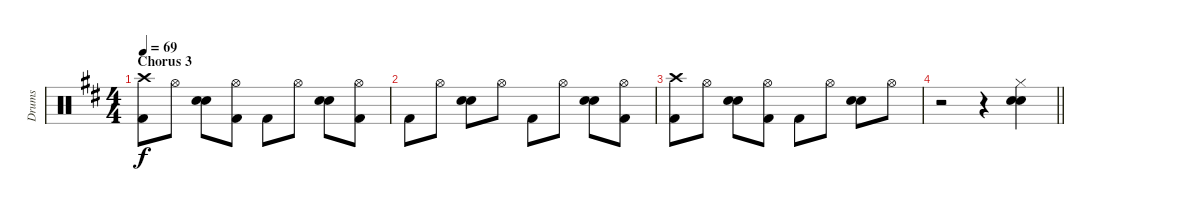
\track ("Drums" "Drums") {instrument percussion}
\staff {score}
\articulation defaults
\ts (4 4)
\section ("" "Chorus 3")
\tempo 69
\clef neutral
\ks d
("Crash high (hit)" "Kick (hit) 2").8{dy f} "Hi-Hat (open)".8 ("Hand Clap (hit)" "Snare (hit) 2").8 ("Hi-Hat (open)" "Kick (hit) 2").8 "Kick (hit) 2".8 "Hi-Hat (open)".8 ("Hand Clap (hit)" "Snare (hit) 2").8 ("Hi-Hat (open)" "Kick (hit) 2").8 |
"Kick (hit) 2".8 "Hi-Hat (open)".8 ("Hand Clap (hit)" "Snare (hit) 2").8 "Hi-Hat (open)".8 "Kick (hit) 2".8 "Hi-Hat (open)".8 ("Hand Clap (hit)" "Snare (hit) 2").8 ("Hi-Hat (open)" "Kick (hit) 2").8 |
("Crash high (hit)" "Kick (hit) 2").8 "Hi-Hat (open)".8 ("Hand Clap (hit)" "Snare (hit) 2").8 ("Hi-Hat (open)" "Kick (hit) 2").8 "Kick (hit) 2".8 "Hi-Hat (open)".8 ("Hand Clap (hit)" "Snare (hit) 2").8 "Hi-Hat (open)".8 |
\barLineRight lightlight
r.2 r.4 ("Hi-Hat (closed)" "Hand Clap (hit)" "Snare (hit) 2").4
